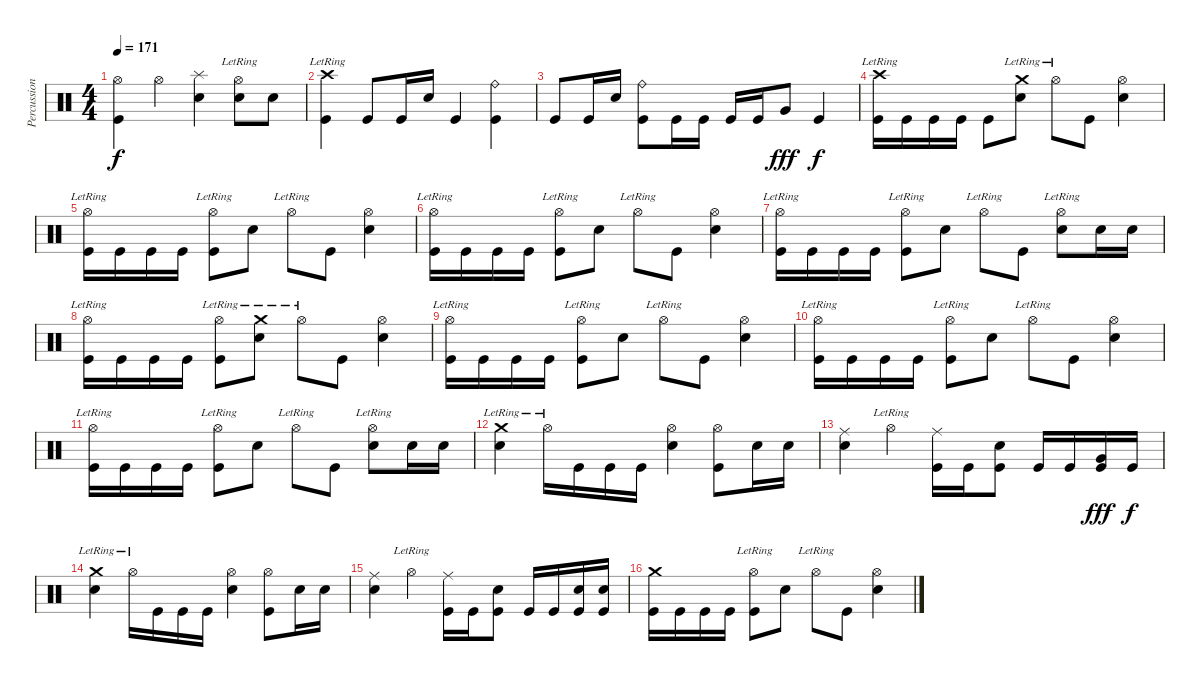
\track ("Percussions" "Percussion") {instrument percussion}
\staff {score}
\articulation defaults
\ts (4 4)
\tempo 171
\clef neutral
\ks c
("Hi-Hat (open)" "Kick (hit)").4{dy f} "Hi-Hat (open)".4 ("Splash (hit)" "Snare (hit) 2").4 ("Hi-Hat (open)"{lr} "Snare (hit) 2").8 "Snare (hit) 2".8 |
("Crash high (hit)"{lr} "Kick (hit)").4 "Kick (hit)".8 "Kick (hit)".16 "Snare (hit) 2".16 "Kick (hit)".4 ("Ride (bell)" "Kick (hit)").4 |
"Kick (hit)".8 "Kick (hit)".16 "Snare (hit) 2".16 ("Ride (bell)" "Kick (hit)").8 "Kick (hit)".16 "Kick (hit)".16 "Kick (hit)".16 "Kick (hit)".16 "Very Low Tom (hit)".8{dy fff} "Kick (hit)".4{dy f} |
("Crash high (hit)"{lr} "Kick (hit)").16 "Kick (hit)".16 "Kick (hit)".16 "Kick (hit)".16 "Kick (hit)".8 ("Crash medium (hit)"{lr} "Snare (hit) 2").8 "Hi-Hat (open)"{lr}.8 "Kick (hit)".8 ("Hi-Hat (open)" "Snare (hit) 2").4 |
("Hi-Hat (open)"{lr} "Kick (hit)").16 "Kick (hit)".16 "Kick (hit)".16 "Kick (hit)".16 ("Hi-Hat (open)"{lr} "Kick (hit)").8 "Snare (hit) 2".8 "Hi-Hat (open)"{lr}.8 "Kick (hit)".8 ("Hi-Hat (open)" "Snare (hit) 2").4 |
("Hi-Hat (open)"{lr} "Kick (hit)").16 "Kick (hit)".16 "Kick (hit)".16 "Kick (hit)".16 ("Hi-Hat (open)"{lr} "Kick (hit)").8 "Snare (hit) 2".8 "Hi-Hat (open)"{lr}.8 "Kick (hit)".8 ("Hi-Hat (open)" "Snare (hit) 2").4 |
("Hi-Hat (open)"{lr} "Kick (hit)").16 "Kick (hit)".16 "Kick (hit)".16 "Kick (hit)".16 ("Hi-Hat (open)"{lr} "Kick (hit)").8 "Snare (hit) 2".8 "Hi-Hat (open)"{lr}.8 "Kick (hit)".8 ("Hi-Hat (open)"{lr} "Snare (hit) 2").8 "Snare (hit) 2".16 "Snare (hit) 2".16 |
("Hi-Hat (open)"{lr} "Kick (hit)").16 "Kick (hit)".16 "Kick (hit)".16 "Kick (hit)".16 ("Hi-Hat (open)"{lr} "Kick (hit)").8 ("Crash medium (hit)"{lr} "Snare (hit) 2").8 "Hi-Hat (open)"{lr}.8 "Kick (hit)".8 ("Hi-Hat (open)" "Snare (hit) 2").4 |
("Hi-Hat (open)"{lr} "Kick (hit)").16 "Kick (hit)".16 "Kick (hit)".16 "Kick (hit)".16 ("Hi-Hat (open)"{lr} "Kick (hit)").8 "Snare (hit) 2".8 "Hi-Hat (open)"{lr}.8 "Kick (hit)".8 ("Hi-Hat (open)" "Snare (hit) 2").4 |
("Hi-Hat (open)"{lr} "Kick (hit)").16 "Kick (hit)".16 "Kick (hit)".16 "Kick (hit)".16 ("Hi-Hat (open)"{lr} "Kick (hit)").8 "Snare (hit) 2".8 "Hi-Hat (open)"{lr}.8 "Kick (hit)".8 ("Hi-Hat (open)" "Snare (hit) 2").4 |
("Hi-Hat (open)"{lr} "Kick (hit)").16 "Kick (hit)".16 "Kick (hit)".16 "Kick (hit)".16 ("Hi-Hat (open)"{lr} "Kick (hit)").8 "Snare (hit) 2".8 "Hi-Hat (open)"{lr}.8 "Kick (hit)".8 ("Hi-Hat (open)"{lr} "Snare (hit) 2").8 "Snare (hit) 2".16 "Snare (hit) 2".16 |
("Crash medium (hit)"{lr} "Snare (hit) 2").4 "Hi-Hat (open)"{lr}.16 "Kick (hit)".16 "Kick (hit)".16 "Kick (hit)".16 ("Hi-Hat (open)" "Snare (hit) 2").4 ("Hi-Hat (open)" "Kick (hit)").8 "Snare (hit) 2".16 "Snare (hit) 2".16 |
("Ride (middle)" "Snare (hit) 2").4 "Hi-Hat (open)"{lr}.4 ("Ride (middle)" "Kick (hit)").16 "Kick (hit)".16 ("Snare (hit) 2" "Kick (hit)").8 "Kick (hit)".16 "Kick (hit)".16 ("Very Low Tom (hit)" "Kick (hit)").16{dy fff} "Kick (hit)".16{dy f} |
("Crash medium (hit)"{lr} "Snare (hit) 2").4 "Hi-Hat (open)"{lr}.16 "Kick (hit)".16 "Kick (hit)".16 "Kick (hit)".16 ("Hi-Hat (open)" "Snare (hit) 2").4 ("Hi-Hat (open)" "Kick (hit)").8 "Snare (hit) 2".16 "Snare (hit) 2".16 |
("Ride (middle)" "Snare (hit) 2").4 "Hi-Hat (open)"{lr}.4 ("Ride (middle)" "Kick (hit)").16 "Kick (hit)".16 ("Snare (hit) 2" "Kick (hit)").8 "Kick (hit)".16 "Kick (hit)".16 ("Snare (hit) 2" "Kick (hit)").16 ("Snare (hit) 2" "Kick (hit)").16 |
("Crash medium (hit)" "Kick (hit)").16 "Kick (hit)".16 "Kick (hit)".16 "Kick (hit)".16 ("Hi-Hat (open)"{lr} "Kick (hit)").8 "Snare (hit) 2".8 "Hi-Hat (open)"{lr}.8 "Kick (hit)".8 ("Hi-Hat (open)" "Snare (hit) 2").4
